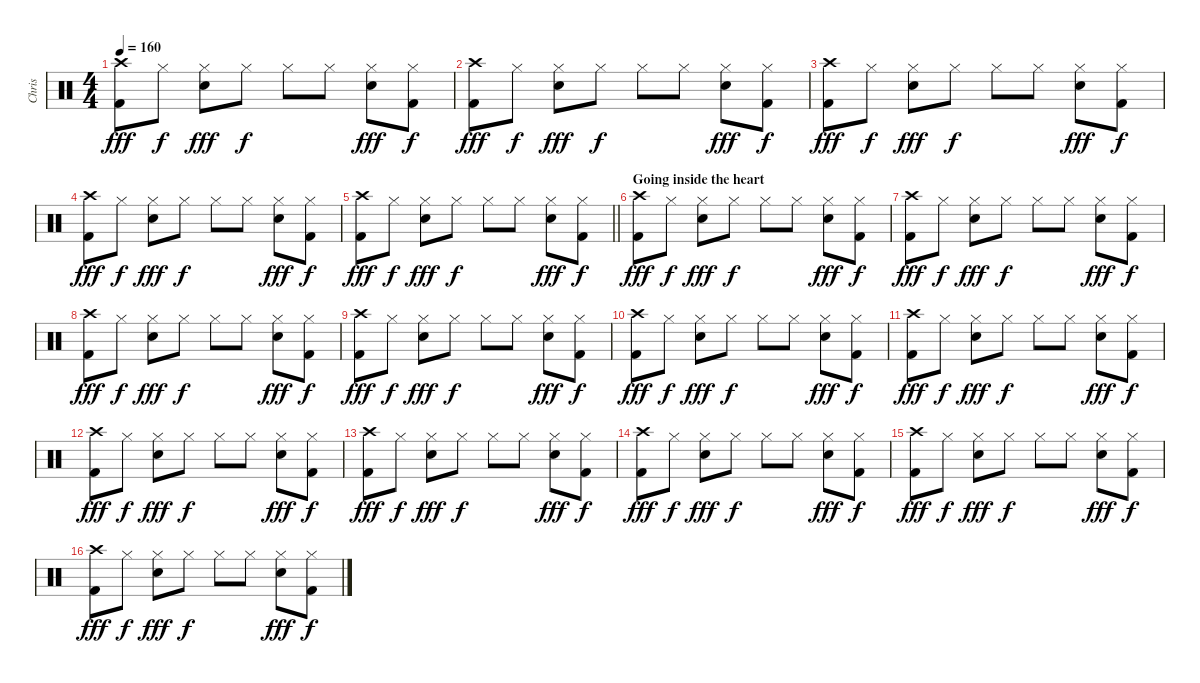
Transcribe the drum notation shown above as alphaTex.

\track ("Chris" "Chris") {instrument percussion}
\staff {score}
\articulation defaults
\ts (4 4)
\tempo 160
\clef neutral
\ks c
("Crash high (hit)" "Kick (hit) 2").8{dy fff} "Hi-Hat (closed)".8{dy f} ("Hi-Hat (closed)" "Snare (hit) 2").8{dy fff} "Hi-Hat (closed)".8{dy f} "Hi-Hat (closed)".8 "Hi-Hat (closed)".8 ("Hi-Hat (closed)" "Snare (hit) 2").8{dy fff} ("Hi-Hat (closed)" "Kick (hit) 2").8{dy f} |
("Crash high (hit)" "Kick (hit) 2").8{dy fff} "Hi-Hat (closed)".8{dy f} ("Hi-Hat (closed)" "Snare (hit) 2").8{dy fff} "Hi-Hat (closed)".8{dy f} "Hi-Hat (closed)".8 "Hi-Hat (closed)".8 ("Hi-Hat (closed)" "Snare (hit) 2").8{dy fff} ("Hi-Hat (closed)" "Kick (hit) 2").8{dy f} |
("Crash high (hit)" "Kick (hit) 2").8{dy fff} "Hi-Hat (closed)".8{dy f} ("Hi-Hat (closed)" "Snare (hit) 2").8{dy fff} "Hi-Hat (closed)".8{dy f} "Hi-Hat (closed)".8 "Hi-Hat (closed)".8 ("Hi-Hat (closed)" "Snare (hit) 2").8{dy fff} ("Hi-Hat (closed)" "Kick (hit) 2").8{dy f} |
("Crash high (hit)" "Kick (hit) 2").8{dy fff} "Hi-Hat (closed)".8{dy f} ("Hi-Hat (closed)" "Snare (hit) 2").8{dy fff} "Hi-Hat (closed)".8{dy f} "Hi-Hat (closed)".8 "Hi-Hat (closed)".8 ("Hi-Hat (closed)" "Snare (hit) 2").8{dy fff} ("Hi-Hat (closed)" "Kick (hit) 2").8{dy f} |
\barLineRight lightlight
("Crash high (hit)" "Kick (hit) 2").8{dy fff} "Hi-Hat (closed)".8{dy f} ("Hi-Hat (closed)" "Snare (hit) 2").8{dy fff} "Hi-Hat (closed)".8{dy f} "Hi-Hat (closed)".8 "Hi-Hat (closed)".8 ("Hi-Hat (closed)" "Snare (hit) 2").8{dy fff} ("Hi-Hat (closed)" "Kick (hit) 2").8{dy f} |
\section ("" "Going inside the heart")
("Crash high (hit)" "Kick (hit) 2").8{dy fff} "Hi-Hat (closed)".8{dy f} ("Hi-Hat (closed)" "Snare (hit) 2").8{dy fff} "Hi-Hat (closed)".8{dy f} "Hi-Hat (closed)".8 "Hi-Hat (closed)".8 ("Hi-Hat (closed)" "Snare (hit) 2").8{dy fff} ("Hi-Hat (closed)" "Kick (hit) 2").8{dy f} |
("Crash high (hit)" "Kick (hit) 2").8{dy fff} "Hi-Hat (closed)".8{dy f} ("Hi-Hat (closed)" "Snare (hit) 2").8{dy fff} "Hi-Hat (closed)".8{dy f} "Hi-Hat (closed)".8 "Hi-Hat (closed)".8 ("Hi-Hat (closed)" "Snare (hit) 2").8{dy fff} ("Hi-Hat (closed)" "Kick (hit) 2").8{dy f} |
("Crash high (hit)" "Kick (hit) 2").8{dy fff} "Hi-Hat (closed)".8{dy f} ("Hi-Hat (closed)" "Snare (hit) 2").8{dy fff} "Hi-Hat (closed)".8{dy f} "Hi-Hat (closed)".8 "Hi-Hat (closed)".8 ("Hi-Hat (closed)" "Snare (hit) 2").8{dy fff} ("Hi-Hat (closed)" "Kick (hit) 2").8{dy f} |
("Crash high (hit)" "Kick (hit) 2").8{dy fff} "Hi-Hat (closed)".8{dy f} ("Hi-Hat (closed)" "Snare (hit) 2").8{dy fff} "Hi-Hat (closed)".8{dy f} "Hi-Hat (closed)".8 "Hi-Hat (closed)".8 ("Hi-Hat (closed)" "Snare (hit) 2").8{dy fff} ("Hi-Hat (closed)" "Kick (hit) 2").8{dy f} |
("Crash high (hit)" "Kick (hit) 2").8{dy fff} "Hi-Hat (closed)".8{dy f} ("Hi-Hat (closed)" "Snare (hit) 2").8{dy fff} "Hi-Hat (closed)".8{dy f} "Hi-Hat (closed)".8 "Hi-Hat (closed)".8 ("Hi-Hat (closed)" "Snare (hit) 2").8{dy fff} ("Hi-Hat (closed)" "Kick (hit) 2").8{dy f} |
("Crash high (hit)" "Kick (hit) 2").8{dy fff} "Hi-Hat (closed)".8{dy f} ("Hi-Hat (closed)" "Snare (hit) 2").8{dy fff} "Hi-Hat (closed)".8{dy f} "Hi-Hat (closed)".8 "Hi-Hat (closed)".8 ("Hi-Hat (closed)" "Snare (hit) 2").8{dy fff} ("Hi-Hat (closed)" "Kick (hit) 2").8{dy f} |
("Crash high (hit)" "Kick (hit) 2").8{dy fff} "Hi-Hat (closed)".8{dy f} ("Hi-Hat (closed)" "Snare (hit) 2").8{dy fff} "Hi-Hat (closed)".8{dy f} "Hi-Hat (closed)".8 "Hi-Hat (closed)".8 ("Hi-Hat (closed)" "Snare (hit) 2").8{dy fff} ("Hi-Hat (closed)" "Kick (hit) 2").8{dy f} |
("Crash high (hit)" "Kick (hit) 2").8{dy fff} "Hi-Hat (closed)".8{dy f} ("Hi-Hat (closed)" "Snare (hit) 2").8{dy fff} "Hi-Hat (closed)".8{dy f} "Hi-Hat (closed)".8 "Hi-Hat (closed)".8 ("Hi-Hat (closed)" "Snare (hit) 2").8{dy fff} ("Hi-Hat (closed)" "Kick (hit) 2").8{dy f} |
("Crash high (hit)" "Kick (hit) 2").8{dy fff} "Hi-Hat (closed)".8{dy f} ("Hi-Hat (closed)" "Snare (hit) 2").8{dy fff} "Hi-Hat (closed)".8{dy f} "Hi-Hat (closed)".8 "Hi-Hat (closed)".8 ("Hi-Hat (closed)" "Snare (hit) 2").8{dy fff} ("Hi-Hat (closed)" "Kick (hit) 2").8{dy f} |
("Crash high (hit)" "Kick (hit) 2").8{dy fff} "Hi-Hat (closed)".8{dy f} ("Hi-Hat (closed)" "Snare (hit) 2").8{dy fff} "Hi-Hat (closed)".8{dy f} "Hi-Hat (closed)".8 "Hi-Hat (closed)".8 ("Hi-Hat (closed)" "Snare (hit) 2").8{dy fff} ("Hi-Hat (closed)" "Kick (hit) 2").8{dy f} |
("Crash high (hit)" "Kick (hit) 2").8{dy fff} "Hi-Hat (closed)".8{dy f} ("Hi-Hat (closed)" "Snare (hit) 2").8{dy fff} "Hi-Hat (closed)".8{dy f} "Hi-Hat (closed)".8 "Hi-Hat (closed)".8 ("Hi-Hat (closed)" "Snare (hit) 2").8{dy fff} ("Hi-Hat (closed)" "Kick (hit) 2").8{dy f}
